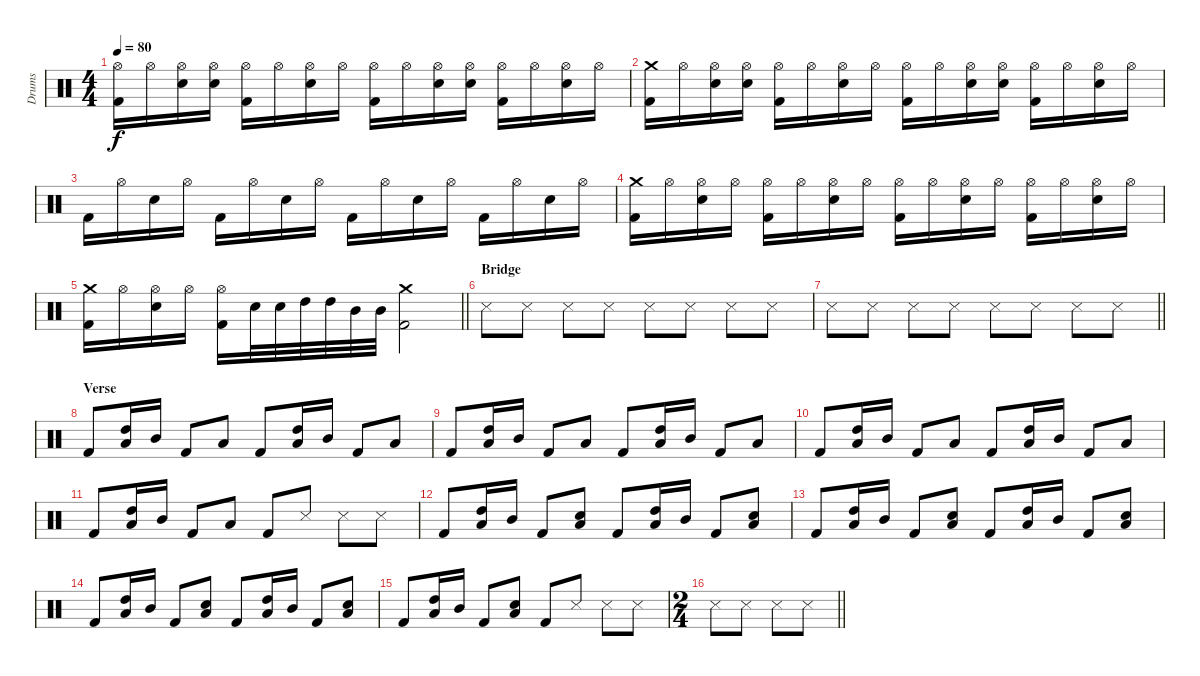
\track ("Drums" "Drums") {instrument percussion}
\staff {score}
\articulation defaults
\ts (4 4)
\tempo 80
\clef neutral
\ks c
("Hi-Hat (open)" "Kick (hit) 2").16{dy f} "Hi-Hat (open)".16 ("Hi-Hat (open)" "Snare (hit) 2").16 ("Hi-Hat (open)" "Snare (hit) 2").16 ("Hi-Hat (open)" "Kick (hit) 2").16 "Hi-Hat (open)".16 ("Hi-Hat (open)" "Snare (hit) 2").16 "Hi-Hat (open)".16 ("Hi-Hat (open)" "Kick (hit) 2").16 "Hi-Hat (open)".16 ("Hi-Hat (open)" "Snare (hit) 2").16 ("Hi-Hat (open)" "Snare (hit) 2").16 ("Hi-Hat (open)" "Kick (hit) 2").16 "Hi-Hat (open)".16 ("Hi-Hat (open)" "Snare (hit) 2").16 "Hi-Hat (open)".16 |
("Crash medium (hit)" "Kick (hit) 2").16 "Hi-Hat (open)".16 ("Hi-Hat (open)" "Snare (hit) 2").16 ("Hi-Hat (open)" "Snare (hit) 2").16 ("Hi-Hat (open)" "Kick (hit) 2").16 "Hi-Hat (open)".16 ("Hi-Hat (open)" "Snare (hit) 2").16 "Hi-Hat (open)".16 ("Hi-Hat (open)" "Kick (hit) 2").16 "Hi-Hat (open)".16 ("Hi-Hat (open)" "Snare (hit) 2").16 ("Hi-Hat (open)" "Snare (hit) 2").16 ("Hi-Hat (open)" "Kick (hit) 2").16 "Hi-Hat (open)".16 ("Hi-Hat (open)" "Snare (hit) 2").16 "Hi-Hat (open)".16 |
"Kick (hit) 2".16 "Hi-Hat (open)".16 "Snare (hit) 2".16 "Hi-Hat (open)".16 "Kick (hit) 2".16 "Hi-Hat (open)".16 "Snare (hit) 2".16 "Hi-Hat (open)".16 "Kick (hit) 2".16 "Hi-Hat (open)".16 "Snare (hit) 2".16 "Hi-Hat (open)".16 "Kick (hit) 2".16 "Hi-Hat (open)".16 "Snare (hit) 2".16 "Hi-Hat (open)".16 |
("Crash medium (hit)" "Kick (hit) 2").16 "Hi-Hat (open)".16 ("Hi-Hat (open)" "Snare (hit) 2").16 "Hi-Hat (open)".16 ("Hi-Hat (open)" "Kick (hit) 2").16 "Hi-Hat (open)".16 ("Hi-Hat (open)" "Snare (hit) 2").16 "Hi-Hat (open)".16 ("Hi-Hat (open)" "Kick (hit) 2").16 "Hi-Hat (open)".16 ("Hi-Hat (open)" "Snare (hit) 2").16 "Hi-Hat (open)".16 ("Hi-Hat (open)" "Kick (hit) 2").16 "Hi-Hat (open)".16 ("Hi-Hat (open)" "Snare (hit) 2").16 "Hi-Hat (open)".16 |
\barLineRight lightlight
("Crash medium (hit)" "Kick (hit) 2").16 "Hi-Hat (open)".16 ("Hi-Hat (open)" "Snare (hit) 2").16 "Hi-Hat (open)".16 ("Hi-Hat (open)" "Kick (hit) 2").16 "Snare (hit) 2".32 "Snare (hit) 2".32 "High Tom (hit)".32 "High Tom (hit)".32 "Mid Tom (hit)".32 "Mid Tom (hit)".32 ("Crash medium (hit)" "Kick (hit) 2").2 |
\section ("" "Bridge")
"Snare (side stick) 3".8 "Snare (side stick) 3".8 "Snare (side stick) 3".8 "Snare (side stick) 3".8 "Snare (side stick) 3".8 "Snare (side stick) 3".8 "Snare (side stick) 3".8 "Snare (side stick) 3".8 |
\barLineRight lightlight "Snare (side stick) 3".8 "Snare (side stick) 3".8 "Snare (side stick) 3".8 "Snare (side stick) 3".8 "Snare (side stick) 3".8 "Snare (side stick) 3".8 "Snare (side stick) 3".8 "Snare (side stick) 3".8
|
\section ("" "Verse")
"Kick (hit) 2".8 ("High Tom (hit)" "Low Tom (hit)").16 "Mid Tom (hit)".16 "Kick (hit) 2".8 "Low Tom (hit)".8 "Kick (hit) 2".8 ("High Tom (hit)" "Low Tom (hit)").16 "Mid Tom (hit)".16 "Kick (hit) 2".8 "Low Tom (hit)".8 |
"Kick (hit) 2".8 ("High Tom (hit)" "Low Tom (hit)").16 "Mid Tom (hit)".16 "Kick (hit) 2".8 "Low Tom (hit)".8 "Kick (hit) 2".8 ("High Tom (hit)" "Low Tom (hit)").16 "Mid Tom (hit)".16 "Kick (hit) 2".8 "Low Tom (hit)".8 |
"Kick (hit) 2".8 ("High Tom (hit)" "Low Tom (hit)").16 "Mid Tom (hit)".16 "Kick (hit) 2".8 "Low Tom (hit)".8 "Kick (hit) 2".8 ("High Tom (hit)" "Low Tom (hit)").16 "Mid Tom (hit)".16 "Kick (hit) 2".8 "Low Tom (hit)".8 |
"Kick (hit) 2".8 ("High Tom (hit)" "Low Tom (hit)").16 "Mid Tom (hit)".16 "Kick (hit) 2".8 "Low Tom (hit)".8 "Kick (hit) 2".8 "Snare (side stick) 3".8 "Snare (side stick) 3".8 "Snare (side stick) 3".8 |
"Kick (hit) 2".8 ("High Tom (hit)" "Low Tom (hit)").16 "Mid Tom (hit)".16 "Kick (hit) 2".8 ("Low Tom (hit)" "Snare (hit) 2").8 "Kick (hit) 2".8 ("High Tom (hit)" "Low Tom (hit)").16 "Mid Tom (hit)".16 "Kick (hit) 2".8 ("Low Tom (hit)" "Snare (hit) 2").8 |
"Kick (hit) 2".8 ("High Tom (hit)" "Low Tom (hit)").16 "Mid Tom (hit)".16 "Kick (hit) 2".8 ("Low Tom (hit)" "Snare (hit) 2").8 "Kick (hit) 2".8 ("High Tom (hit)" "Low Tom (hit)").16 "Mid Tom (hit)".16 "Kick (hit) 2".8 ("Low Tom (hit)" "Snare (hit) 2").8 |
"Kick (hit) 2".8 ("High Tom (hit)" "Low Tom (hit)").16 "Mid Tom (hit)".16 "Kick (hit) 2".8 ("Low Tom (hit)" "Snare (hit) 2").8 "Kick (hit) 2".8 ("High Tom (hit)" "Low Tom (hit)").16 "Mid Tom (hit)".16 "Kick (hit) 2".8 ("Low Tom (hit)" "Snare (hit) 2").8 |
"Kick (hit) 2".8 ("High Tom (hit)" "Low Tom (hit)").16 "Mid Tom (hit)".16 "Kick (hit) 2".8 ("Low Tom (hit)" "Snare (hit) 2").8 "Kick (hit) 2".8 "Snare (side stick) 3".8 "Snare (side stick) 3".8 "Snare (side stick) 3".8 |
\ts (2 4)
\barLineRight lightlight "Snare (side stick) 3".8 "Snare (side stick) 3".8 "Snare (side stick) 3".8 "Snare (side stick) 3".8
